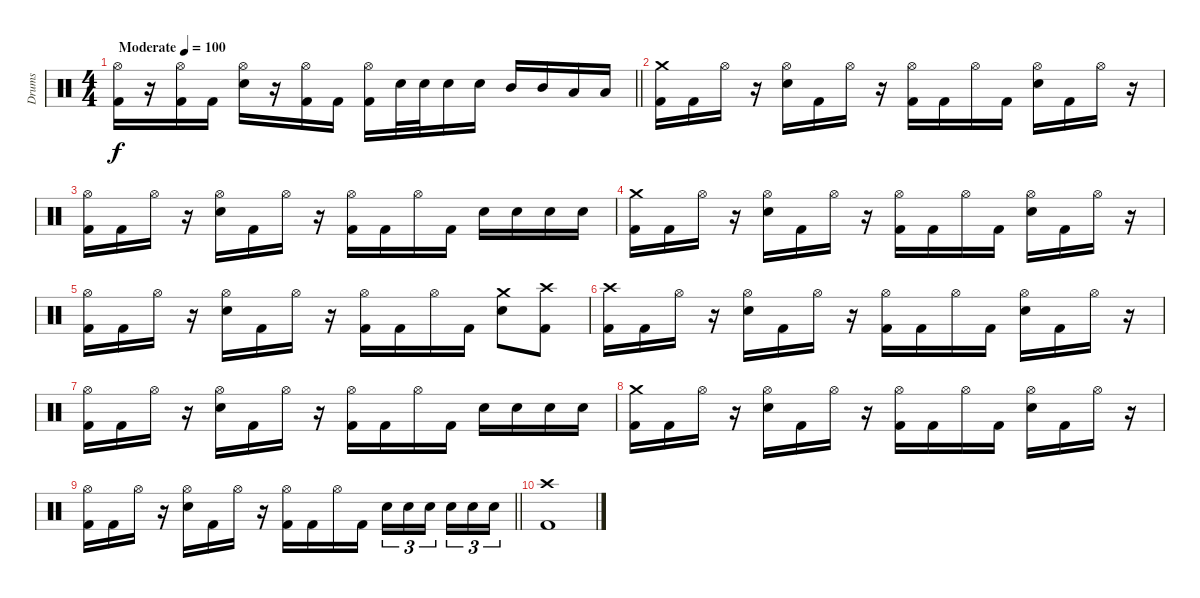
\track ("Drums" "Drums") {instrument percussion}
\staff {score}
\articulation defaults
\ts (4 4)
\tempo (100 "Moderate")
\clef neutral
\barLineRight lightlight
\ks c
("Kick (hit) 2" "Hi-Hat (open)").16{dy f} r.16 ("Kick (hit) 2" "Hi-Hat (open)").16 "Kick (hit) 2".16 ("Electric Snare (hit)" "Hi-Hat (open)").16 r.16 ("Kick (hit) 2" "Hi-Hat (open)").16 "Kick (hit) 2".16 ("Kick (hit) 2" "Hi-Hat (open)").16 "Electric Snare (hit)".32 "Electric Snare (hit)".32 "Electric Snare (hit)".16 "Electric Snare (hit)".16 "Mid Tom (hit)".16 "Mid Tom (hit)".16 "Low Tom (hit)".16 "Low Tom (hit)".16 |
("Kick (hit) 2" "Crash medium (hit)").16 "Kick (hit) 2".16 "Hi-Hat (open)".16 r.16 ("Electric Snare (hit)" "Hi-Hat (open)").16 "Kick (hit) 2".16 "Hi-Hat (open)".16 r.16 ("Kick (hit) 2" "Hi-Hat (open)").16 "Kick (hit) 2".16 "Hi-Hat (open)".16 "Kick (hit) 2".16 ("Electric Snare (hit)" "Hi-Hat (open)").16 "Kick (hit) 2".16 "Hi-Hat (open)".16 r.16 |
("Kick (hit) 2" "Hi-Hat (open)").16 "Kick (hit) 2".16 "Hi-Hat (open)".16 r.16 ("Electric Snare (hit)" "Hi-Hat (open)").16 "Kick (hit) 2".16 "Hi-Hat (open)".16 r.16 ("Kick (hit) 2" "Hi-Hat (open)").16 "Kick (hit) 2".16 "Hi-Hat (open)".16 "Kick (hit) 2".16 "Electric Snare (hit)".16 "Electric Snare (hit)".16 "Electric Snare (hit)".16 "Electric Snare (hit)".16 |
("Kick (hit) 2" "Crash medium (hit)").16 "Kick (hit) 2".16 "Hi-Hat (open)".16 r.16 ("Electric Snare (hit)" "Hi-Hat (open)").16 "Kick (hit) 2".16 "Hi-Hat (open)".16 r.16 ("Kick (hit) 2" "Hi-Hat (open)").16 "Kick (hit) 2".16 "Hi-Hat (open)".16 "Kick (hit) 2".16 ("Electric Snare (hit)" "Hi-Hat (open)").16 "Kick (hit) 2".16 "Hi-Hat (open)".16 r.16 |
("Kick (hit) 2" "Hi-Hat (open)").16 "Kick (hit) 2".16 "Hi-Hat (open)".16 r.16 ("Electric Snare (hit)" "Hi-Hat (open)").16 "Kick (hit) 2".16 "Hi-Hat (open)".16 r.16 ("Kick (hit) 2" "Hi-Hat (open)").16 "Kick (hit) 2".16 "Hi-Hat (open)".16 "Kick (hit) 2".16 ("Electric Snare (hit)" "Crash medium (hit)").8 ("Kick (hit) 2" "Crash high (hit)").8 |
("Kick (hit) 2" "Crash high (hit)").16 "Kick (hit) 2".16 "Hi-Hat (open)".16 r.16 ("Electric Snare (hit)" "Hi-Hat (open)").16 "Kick (hit) 2".16 "Hi-Hat (open)".16 r.16 ("Kick (hit) 2" "Hi-Hat (open)").16 "Kick (hit) 2".16 "Hi-Hat (open)".16 "Kick (hit) 2".16 ("Electric Snare (hit)" "Hi-Hat (open)").16 "Kick (hit) 2".16 "Hi-Hat (open)".16 r.16 |
("Kick (hit) 2" "Hi-Hat (open)").16 "Kick (hit) 2".16 "Hi-Hat (open)".16 r.16 ("Electric Snare (hit)" "Hi-Hat (open)").16 "Kick (hit) 2".16 "Hi-Hat (open)".16 r.16 ("Kick (hit) 2" "Hi-Hat (open)").16 "Kick (hit) 2".16 "Hi-Hat (open)".16 "Kick (hit) 2".16 "Electric Snare (hit)".16 "Electric Snare (hit)".16 "Electric Snare (hit)".16 "Electric Snare (hit)".16 |
("Kick (hit) 2" "Crash medium (hit)").16 "Kick (hit) 2".16 "Hi-Hat (open)".16 r.16 ("Electric Snare (hit)" "Hi-Hat (open)").16 "Kick (hit) 2".16 "Hi-Hat (open)".16 r.16 ("Kick (hit) 2" "Hi-Hat (open)").16 "Kick (hit) 2".16 "Hi-Hat (open)".16 "Kick (hit) 2".16 ("Electric Snare (hit)" "Hi-Hat (open)").16 "Kick (hit) 2".16 "Hi-Hat (open)".16 r.16 |
\barLineRight lightlight
("Kick (hit) 2" "Hi-Hat (open)").16 "Kick (hit) 2".16 "Hi-Hat (open)".16 r.16 ("Electric Snare (hit)" "Hi-Hat (open)").16 "Kick (hit) 2".16 "Hi-Hat (open)".16 r.16 ("Kick (hit) 2" "Hi-Hat (open)").16 "Kick (hit) 2".16 "Hi-Hat (open)".16 "Kick (hit) 2".16 "Electric Snare (hit)".16{tu (3 2)} "Electric Snare (hit)".16{tu (3 2)} "Electric Snare (hit)".16{tu (3 2) beam splitsecondary} "Electric Snare (hit)".16{tu (3 2)} "Electric Snare (hit)".16{tu (3 2)} "Electric Snare (hit)".16{tu (3 2)} |
("Crash high (hit)" "Kick (hit) 2").1
